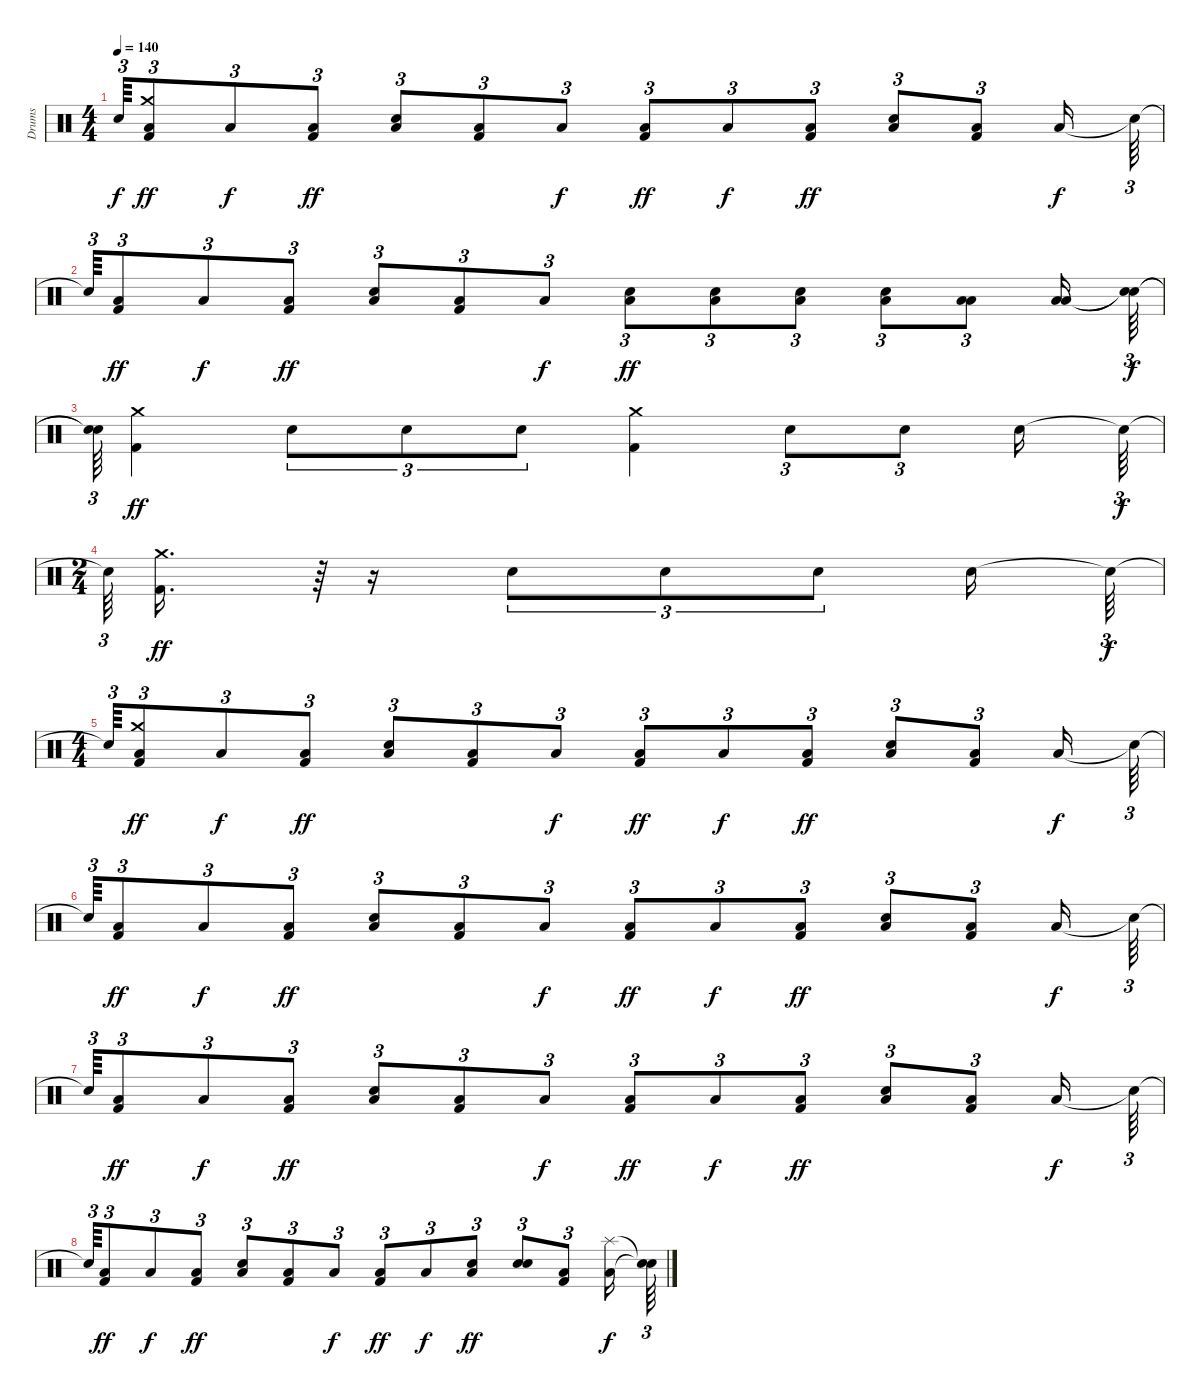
\track ("Drums" "Drums") {instrument percussion}
\staff {score}
\articulation defaults
\ts (4 4)
\tempo 140
\clef neutral
\ks c "Snare (hit)"{t}.64{tu (3 2) dy f}
("Kick (hit) 2" "Crash medium (hit)" "Low Floor Tom (hit)").8{tu (3 2) dy ff} "Low Floor Tom (hit)".8{tu (3 2) dy f} ("Kick (hit) 2" "Low Floor Tom (hit)").8{tu (3 2) dy ff} ("Snare (hit) 2" "Low Floor Tom (hit)").8{tu (3 2)} ("Kick (hit) 2" "Low Floor Tom (hit)").8{tu (3 2)} "Low Floor Tom (hit)".8{tu (3 2) dy f} ("Kick (hit) 2" "Low Floor Tom (hit)").8{tu (3 2) dy ff} "Low Floor Tom (hit)".8{tu (3 2) dy f} ("Kick (hit) 2" "Low Floor Tom (hit)").8{tu (3 2) dy ff} ("Snare (hit) 2" "Low Floor Tom (hit)").8{tu (3 2)} ("Kick (hit) 2" "Low Floor Tom (hit)").8{tu (3 2)} "Low Floor Tom (hit)".16{dy f} "Snare (hit)"{t}.64{tu (3 2)} |
"Snare (hit)"{t}.64{tu (3 2)} ("Kick (hit) 2" "Low Floor Tom (hit)").8{tu (3 2) dy ff} "Low Floor Tom (hit)".8{tu (3 2) dy f} ("Kick (hit) 2" "Low Floor Tom (hit)").8{tu (3 2) dy ff} ("Snare (hit) 2" "Low Floor Tom (hit)").8{tu (3 2)} ("Kick (hit) 2" "Low Floor Tom (hit)").8{tu (3 2)} "Low Floor Tom (hit)".8{tu (3 2) dy f} ("Snare (hit) 2" "Low Floor Tom (hit)").8{tu (3 2) dy ff} ("Snare (hit) 2" "Low Floor Tom (hit)").8{tu (3 2)} ("Snare (hit) 2" "Low Floor Tom (hit)").8{tu (3 2)} ("Snare (hit) 2" "Low Floor Tom (hit)").8{tu (3 2)} ("Low Tom (hit)" "Low Floor Tom (hit)").8{tu (3 2)} ("Low Floor Tom (hit)" "Low Floor Tom (hit)").16 ("Snare (hit)"{t} "Snare (hit)"{t}).64{tu (3 2) dy f} |
("Snare (hit)"{t} "Snare (hit)"{t}).64{tu (3 2)} ("Kick (hit) 2" "Crash medium (hit)").4{dy ff} "Snare (hit) 2".8{tu (3 2)} "Snare (hit) 2".8{tu (3 2)} "Snare (hit) 2".8{tu (3 2)} ("Kick (hit) 2" "Crash medium (hit)").4 "Snare (hit) 2".8{tu (3 2)} "Snare (hit) 2".8{tu (3 2)} "Snare (hit) 2".16 "Snare (hit)"{t}.64{tu (3 2) dy f} |
\ts (2 4)
"Snare (hit)"{t}.64{tu (3 2)} ("Kick (hit) 2" "Crash medium (hit)").16{d dy ff} r.64{tu (3 2)} r.16 "Snare (hit) 2".8{tu (3 2)} "Snare (hit) 2".8{tu (3 2)} "Snare (hit) 2".8{tu (3 2)} "Snare (hit) 2".16 "Snare (hit)"{t}.64{tu (3 2) dy f} |
\ts (4 4)
"Snare (hit)"{t}.64{tu (3 2)} ("Kick (hit) 2" "Crash medium (hit)" "Low Floor Tom (hit)").8{tu (3 2) dy ff} "Low Floor Tom (hit)".8{tu (3 2) dy f} ("Kick (hit) 2" "Low Floor Tom (hit)").8{tu (3 2) dy ff} ("Snare (hit) 2" "Low Floor Tom (hit)").8{tu (3 2)} ("Kick (hit) 2" "Low Floor Tom (hit)").8{tu (3 2)} "Low Floor Tom (hit)".8{tu (3 2) dy f} ("Kick (hit) 2" "Low Floor Tom (hit)").8{tu (3 2) dy ff} "Low Floor Tom (hit)".8{tu (3 2) dy f} ("Kick (hit) 2" "Low Floor Tom (hit)").8{tu (3 2) dy ff} ("Snare (hit) 2" "Low Floor Tom (hit)").8{tu (3 2)} ("Kick (hit) 2" "Low Floor Tom (hit)").8{tu (3 2)} "Low Floor Tom (hit)".16{dy f} "Snare (hit)"{t}.64{tu (3 2)} |
"Snare (hit)"{t}.64{tu (3 2)} ("Kick (hit) 2" "Low Floor Tom (hit)").8{tu (3 2) dy ff} "Low Floor Tom (hit)".8{tu (3 2) dy f} ("Kick (hit) 2" "Low Floor Tom (hit)").8{tu (3 2) dy ff} ("Snare (hit) 2" "Low Floor Tom (hit)").8{tu (3 2)} ("Kick (hit) 2" "Low Floor Tom (hit)").8{tu (3 2)} "Low Floor Tom (hit)".8{tu (3 2) dy f} ("Kick (hit) 2" "Low Floor Tom (hit)").8{tu (3 2) dy ff} "Low Floor Tom (hit)".8{tu (3 2) dy f} ("Kick (hit) 2" "Low Floor Tom (hit)").8{tu (3 2) dy ff} ("Snare (hit) 2" "Low Floor Tom (hit)").8{tu (3 2)} ("Kick (hit) 2" "Low Floor Tom (hit)").8{tu (3 2)} "Low Floor Tom (hit)".16{dy f} "Snare (hit)"{t}.64{tu (3 2)} |
"Snare (hit)"{t}.64{tu (3 2)} ("Kick (hit) 2" "Low Floor Tom (hit)").8{tu (3 2) dy ff} "Low Floor Tom (hit)".8{tu (3 2) dy f} ("Kick (hit) 2" "Low Floor Tom (hit)").8{tu (3 2) dy ff} ("Snare (hit) 2" "Low Floor Tom (hit)").8{tu (3 2)} ("Kick (hit) 2" "Low Floor Tom (hit)").8{tu (3 2)} "Low Floor Tom (hit)".8{tu (3 2) dy f} ("Kick (hit) 2" "Low Floor Tom (hit)").8{tu (3 2) dy ff} "Low Floor Tom (hit)".8{tu (3 2) dy f} ("Kick (hit) 2" "Low Floor Tom (hit)").8{tu (3 2) dy ff} ("Snare (hit) 2" "Low Floor Tom (hit)").8{tu (3 2)} ("Kick (hit) 2" "Low Floor Tom (hit)").8{tu (3 2)} "Low Floor Tom (hit)".16{dy f} "Snare (hit)"{t}.64{tu (3 2)} |
"Snare (hit)"{t}.64{tu (3 2)} ("Kick (hit) 2" "Low Floor Tom (hit)").8{tu (3 2) dy ff} "Low Floor Tom (hit)".8{tu (3 2) dy f} ("Kick (hit) 2" "Low Floor Tom (hit)").8{tu (3 2) dy ff} ("Snare (hit) 2" "Low Floor Tom (hit)").8{tu (3 2)} ("Kick (hit) 2" "Low Floor Tom (hit)").8{tu (3 2)} "Low Floor Tom (hit)".8{tu (3 2) dy f} ("Kick (hit) 2" "Low Floor Tom (hit)").8{tu (3 2) dy ff} "Low Floor Tom (hit)".8{tu (3 2) dy f} ("Snare (hit) 2" "Low Floor Tom (hit)").8{tu (3 2) dy ff} ("Snare (hit) 2" "Snare (hit)").8{tu (3 2)} ("Kick (hit) 2" "Low Floor Tom (hit)").8{tu (3 2)} ("Splash (hit)" "Low Floor Tom (hit)").16{dy f} ("Snare (hit)"{t} "Snare (hit)"{t}).64{tu (3 2)}
